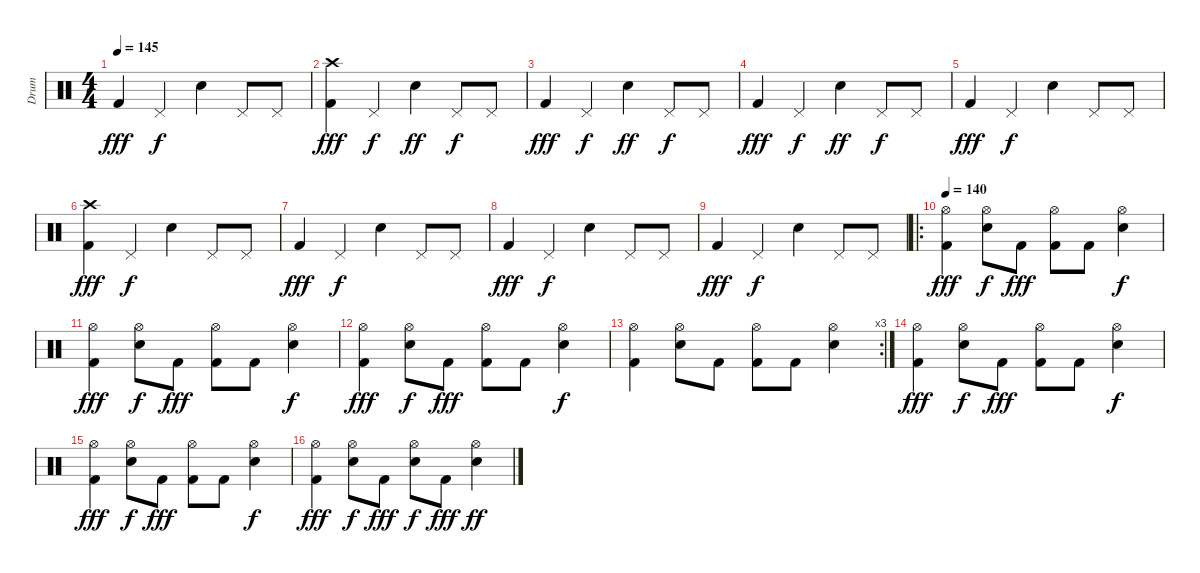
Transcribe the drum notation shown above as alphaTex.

\track ("Drum" "Drum") {instrument percussion}
\staff {score}
\articulation defaults
\ts (4 4)
\tempo 145
\clef neutral
\ks c "Kick (hit) 2".4{dy fff} "Pedal Hi-Hat (hit)".4{dy f} "Electric Snare (hit)".4 "Pedal Hi-Hat (hit)".8 "Pedal Hi-Hat (hit)".8
|
("Crash high (hit)" "Kick (hit) 2").4{dy fff} "Pedal Hi-Hat (hit)".4{dy f} "Electric Snare (hit)".4{dy ff} "Pedal Hi-Hat (hit)".8{dy f} "Pedal Hi-Hat (hit)".8 |
"Kick (hit) 2".4{dy fff} "Pedal Hi-Hat (hit)".4{dy f} "Electric Snare (hit)".4{dy ff} "Pedal Hi-Hat (hit)".8{dy f} "Pedal Hi-Hat (hit)".8 |
"Kick (hit) 2".4{dy fff} "Pedal Hi-Hat (hit)".4{dy f} "Electric Snare (hit)".4{dy ff} "Pedal Hi-Hat (hit)".8{dy f} "Pedal Hi-Hat (hit)".8 |
"Kick (hit) 2".4{dy fff} "Pedal Hi-Hat (hit)".4{dy f} "Electric Snare (hit)".4 "Pedal Hi-Hat (hit)".8 "Pedal Hi-Hat (hit)".8 |
("Crash high (hit)" "Kick (hit) 2").4{dy fff} "Pedal Hi-Hat (hit)".4{dy f} "Electric Snare (hit)".4 "Pedal Hi-Hat (hit)".8 "Pedal Hi-Hat (hit)".8 |
"Kick (hit) 2".4{dy fff} "Pedal Hi-Hat (hit)".4{dy f} "Electric Snare (hit)".4 "Pedal Hi-Hat (hit)".8 "Pedal Hi-Hat (hit)".8 |
"Kick (hit) 2".4{dy fff} "Pedal Hi-Hat (hit)".4{dy f} "Electric Snare (hit)".4 "Pedal Hi-Hat (hit)".8 "Pedal Hi-Hat (hit)".8 |
"Kick (hit) 2".4{dy fff} "Pedal Hi-Hat (hit)".4{dy f} "Electric Snare (hit)".4 "Pedal Hi-Hat (hit)".8 "Pedal Hi-Hat (hit)".8 |
\ro
\tempo 140
("Kick (hit) 2" "Hi-Hat (open)").4{dy fff} ("Electric Snare (hit)" "Hi-Hat (open)").8{dy f} "Kick (hit) 2".8{dy fff} ("Kick (hit) 2" "Hi-Hat (open)").8 "Kick (hit) 2".8 ("Electric Snare (hit)" "Hi-Hat (open)").4{dy f} |
("Kick (hit) 2" "Hi-Hat (open)").4{dy fff} ("Electric Snare (hit)" "Hi-Hat (open)").8{dy f} "Kick (hit) 2".8{dy fff} ("Kick (hit) 2" "Hi-Hat (open)").8 "Kick (hit) 2".8 ("Electric Snare (hit)" "Hi-Hat (open)").4{dy f} |
("Kick (hit) 2" "Hi-Hat (open)").4{dy fff} ("Electric Snare (hit)" "Hi-Hat (open)").8{dy f} "Kick (hit) 2".8{dy fff} ("Kick (hit) 2" "Hi-Hat (open)").8 "Kick (hit) 2".8 ("Electric Snare (hit)" "Hi-Hat (open)").4{dy f} |
\rc 3
("Kick (hit) 2" "Hi-Hat (open)").4 ("Electric Snare (hit)" "Hi-Hat (open)").8 "Kick (hit) 2".8 ("Kick (hit) 2" "Hi-Hat (open)").8 "Kick (hit) 2".8 ("Electric Snare (hit)" "Hi-Hat (open)").4 |
("Kick (hit) 2" "Hi-Hat (open)").4{dy fff} ("Electric Snare (hit)" "Hi-Hat (open)").8{dy f} "Kick (hit) 2".8{dy fff} ("Kick (hit) 2" "Hi-Hat (open)").8 "Kick (hit) 2".8 ("Electric Snare (hit)" "Hi-Hat (open)").4{dy f} |
("Kick (hit) 2" "Hi-Hat (open)").4{dy fff} ("Electric Snare (hit)" "Hi-Hat (open)").8{dy f} "Kick (hit) 2".8{dy fff} ("Kick (hit) 2" "Hi-Hat (open)").8 "Kick (hit) 2".8 ("Electric Snare (hit)" "Hi-Hat (open)").4{dy f} |
("Kick (hit) 2" "Hi-Hat (open)").4{dy fff} ("Electric Snare (hit)" "Hi-Hat (open)").8{dy f} "Kick (hit) 2".8{dy fff} ("Electric Snare (hit)" "Hi-Hat (open)").8{dy f} "Kick (hit) 2".8{dy fff} ("Electric Snare (hit)" "Hi-Hat (open)").4{dy ff}
